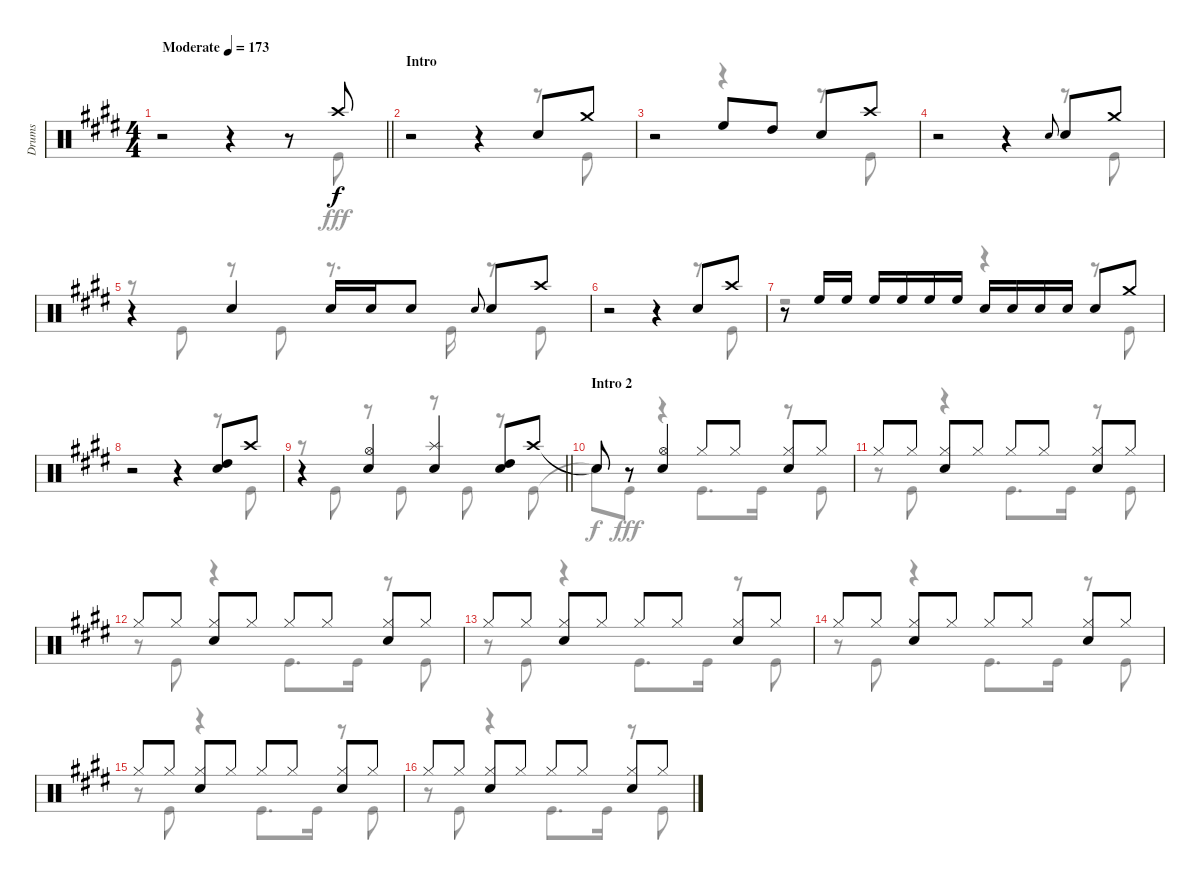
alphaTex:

\track ("Drums" "Drums") {instrument percussion}
\staff {score}
\articulation defaults
\voice
\ts (4 4)
\tempo (173 "Moderate")
\clef neutral
\barLineRight lightlight
\ks e
r.2{dy f} r.4 r.8 "Crash high (hit)".8 |
\section ("" "Intro")
r.2 r.4 "Snare (hit) 2".8 "Crash medium (hit)".8 |
r.2 "High Floor Tom (hit)".8 "High Tom (hit)".8 "Snare (hit) 2".8 "Crash high (hit)".8 |
r.2 r.4 "Snare (hit) 2".8{gr onbeat} "Snare (hit) 2".8 "Crash medium (hit)".8 |
r.4 "Snare (hit) 2".4 "Snare (hit) 2".16 "Snare (hit) 2".16 "Snare (hit) 2".8 "Snare (hit) 2".8{gr onbeat} "Snare (hit) 2".8 "Crash high (hit)".8 |
r.2 r.4 "Snare (hit) 2".8 "Crash high (hit)".8 |
r.8 "High Floor Tom (hit)".16 "High Floor Tom (hit)".16 "High Floor Tom (hit)".16 "High Floor Tom (hit)".16 "High Floor Tom (hit)".16 "High Floor Tom (hit)".16 "Snare (hit) 2".16 "Snare (hit) 2".16 "Snare (hit) 2".16 "Snare (hit) 2".16 "Snare (hit) 2".8 "Crash medium (hit)".8 |
r.2 r.4 ("High Tom (hit)" "Snare (hit) 2").8 "Crash high (hit)".8 |
\barLineRight lightlight
r.4 ("Hi-Hat (open)" "Snare (hit) 2").4 ("Splash (hit)" "Snare (hit) 2").4 ("High Tom (hit)" "Snare (hit) 2").8 "Crash high (hit)".8 |
\section ("" "Intro 2")
"Snare (hit)"{t}.8 r.8 ("Hi-Hat (open)" "Snare (hit) 2").4 "Hi-Hat (closed)".8 "Hi-Hat (closed)".8 ("Hi-Hat (closed)" "Snare (hit) 2").8 "Hi-Hat (closed)".8 |
"Hi-Hat (closed)".8 "Hi-Hat (closed)".8 ("Hi-Hat (closed)" "Snare (hit) 2").8 "Hi-Hat (closed)".8 "Hi-Hat (closed)".8 "Hi-Hat (closed)".8 ("Hi-Hat (closed)" "Snare (hit) 2").8 "Hi-Hat (closed)".8 |
"Hi-Hat (closed)".8 "Hi-Hat (closed)".8 ("Hi-Hat (closed)" "Snare (hit) 2").8 "Hi-Hat (closed)".8 "Hi-Hat (closed)".8 "Hi-Hat (closed)".8 ("Hi-Hat (closed)" "Snare (hit) 2").8 "Hi-Hat (closed)".8 |
"Hi-Hat (closed)".8 "Hi-Hat (closed)".8 ("Hi-Hat (closed)" "Snare (hit) 2").8 "Hi-Hat (closed)".8 "Hi-Hat (closed)".8 "Hi-Hat (closed)".8 ("Hi-Hat (closed)" "Snare (hit) 2").8 "Hi-Hat (closed)".8 |
"Hi-Hat (closed)".8 "Hi-Hat (closed)".8 ("Hi-Hat (closed)" "Snare (hit) 2").8 "Hi-Hat (closed)".8 "Hi-Hat (closed)".8 "Hi-Hat (closed)".8 ("Hi-Hat (closed)" "Snare (hit) 2").8 "Hi-Hat (closed)".8 |
"Hi-Hat (closed)".8 "Hi-Hat (closed)".8 ("Hi-Hat (closed)" "Snare (hit) 2").8 "Hi-Hat (closed)".8 "Hi-Hat (closed)".8 "Hi-Hat (closed)".8 ("Hi-Hat (closed)" "Snare (hit) 2").8 "Hi-Hat (closed)".8 |
"Hi-Hat (closed)".8 "Hi-Hat (closed)".8 ("Hi-Hat (closed)" "Snare (hit) 2").8 "Hi-Hat (closed)".8 "Hi-Hat (closed)".8 "Hi-Hat (closed)".8 ("Hi-Hat (closed)" "Snare (hit) 2").8 "Hi-Hat (closed)".8
\voice
\clef neutral
\ottava regular
\simile none
\barLineRight lightlight
\ks e
r.2{dy fff} r.4 r.8 "Kick (hit)".8 |
r.2 r.4 r.8 "Kick (hit)".8 |
r.2 r.4 r.8 "Kick (hit)".8 |
r.2 r.4 r.8 "Kick (hit)".8 |
r.8 "Kick (hit)".8 r.8 "Kick (hit)".8 r.8{d} "Kick (hit)".16 r.8 "Kick (hit)".8 |
r.2 r.4 r.8 "Kick (hit)".8 |
r.2 r.4 r.8 "Kick (hit)".8 |
r.2 r.4 r.8 "Kick (hit)".8 |
\barLineRight lightlight
r.8 "Kick (hit)".8 r.8 "Kick (hit)".8 r.8 "Kick (hit)".8 r.8 "Kick (hit)".8 |
"Snare (hit)"{t}.8{dy f} "Kick (hit)".8{dy fff} r.4 "Kick (hit)".8{d} "Kick (hit)".16 r.8 "Kick (hit)".8 |
r.8 "Kick (hit)".8 r.4 "Kick (hit)".8{d} "Kick (hit)".16 r.8 "Kick (hit)".8 |
r.8 "Kick (hit)".8 r.4 "Kick (hit)".8{d} "Kick (hit)".16 r.8 "Kick (hit)".8 |
r.8 "Kick (hit)".8 r.4 "Kick (hit)".8{d} "Kick (hit)".16 r.8 "Kick (hit)".8 |
r.8 "Kick (hit)".8 r.4 "Kick (hit)".8{d} "Kick (hit)".16 r.8 "Kick (hit)".8 |
r.8 "Kick (hit)".8 r.4 "Kick (hit)".8{d} "Kick (hit)".16 r.8 "Kick (hit)".8 |
r.8 "Kick (hit)".8 r.4 "Kick (hit)".8{d} "Kick (hit)".16 r.8 "Kick (hit)".8
